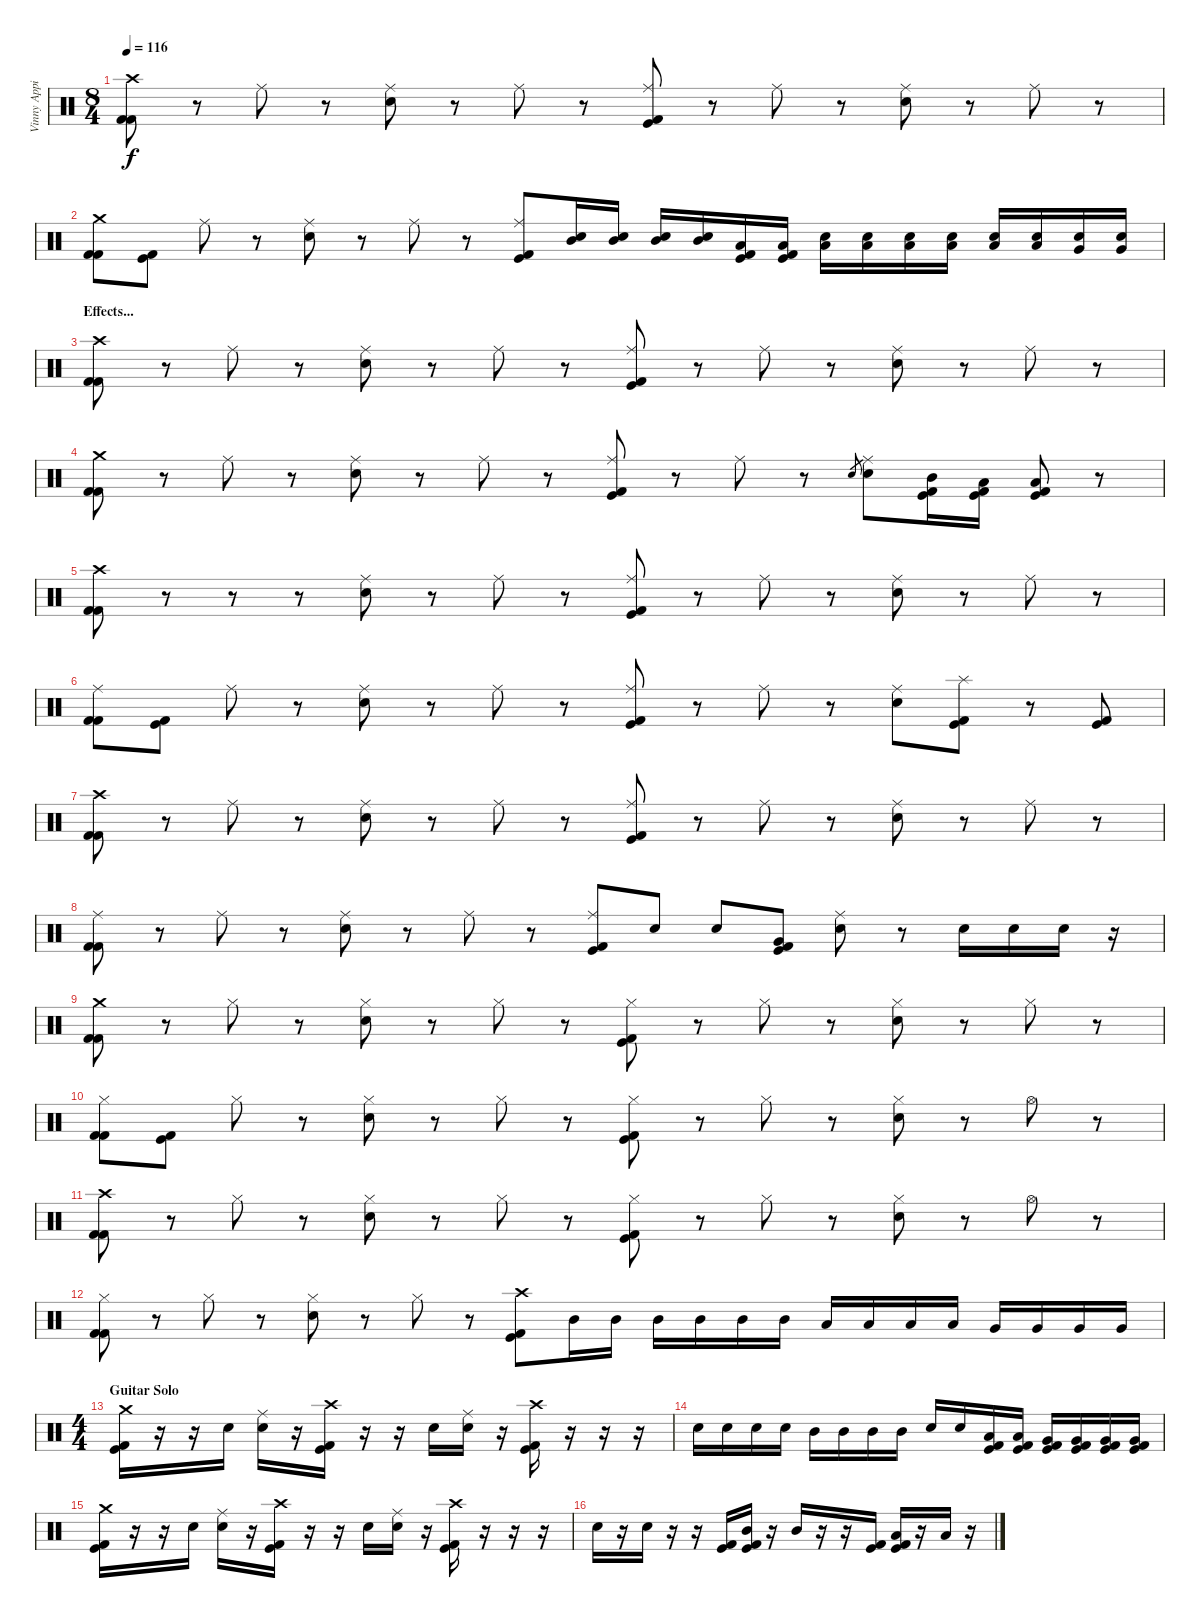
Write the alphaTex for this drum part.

\track ("Vinny Appice" "Vinny Appi") {instrument percussion}
\staff {score}
\articulation defaults
\ts (8 4)
\tempo 116
\clef neutral
\ks c
("Crash high (hit)" "Kick (hit) 2" "Kick (hit) 2").8{dy f} r.8 "Ride (middle)".8 r.8 ("Ride (middle)" "Snare (hit) 2").8 r.8 "Ride (middle)".8 r.8 ("Ride (middle)" "Kick (hit)" "Kick (hit) 2").8 r.8 "Ride (middle)".8 r.8 ("Ride (middle)" "Snare (hit) 2").8 r.8 "Ride (middle)".8 r.8 |
("Crash medium (hit)" "Kick (hit) 2" "Kick (hit) 2").8 ("Kick (hit)" "Kick (hit) 2").8 "Ride (middle)".8 r.8 ("Ride (middle)" "Snare (hit) 2").8 r.8 "Ride (middle)".8 r.8 ("Ride (middle)" "Kick (hit)" "Kick (hit) 2").8 ("Mid Tom (hit)" "Snare (hit) 2").16 ("Mid Tom (hit)" "Snare (hit) 2").16 ("Mid Tom (hit)" "Snare (hit) 2").16 ("Mid Tom (hit)" "Snare (hit) 2").16 ("Low Tom (hit)" "Kick (hit)" "Kick (hit) 2").16 ("Low Tom (hit)" "Kick (hit)" "Kick (hit) 2").16 ("Low Tom (hit)" "Snare (hit) 2").16 ("Low Tom (hit)" "Snare (hit) 2").16 ("Low Tom (hit)" "Snare (hit) 2").16 ("Low Tom (hit)" "Snare (hit) 2").16 ("Low Tom (hit)" "Snare (hit) 2").16 ("Low Tom (hit)" "Snare (hit) 2").16 ("Very Low Tom (hit)" "Snare (hit) 2").16 ("Very Low Tom (hit)" "Snare (hit) 2").16 |
\section ("" "Effects...")
("Crash high (hit)" "Kick (hit) 2" "Kick (hit) 2").8 r.8 "Ride (middle)".8 r.8 ("Ride (middle)" "Snare (hit) 2").8 r.8 "Ride (middle)".8 r.8 ("Ride (middle)" "Kick (hit)" "Kick (hit) 2").8 r.8 "Ride (middle)".8 r.8 ("Ride (middle)" "Snare (hit) 2").8 r.8 "Ride (middle)".8 r.8 |
("Crash medium (hit)" "Kick (hit) 2" "Kick (hit) 2").8 r.8 "Ride (middle)".8 r.8 ("Ride (middle)" "Snare (hit) 2").8 r.8 "Ride (middle)".8 r.8 ("Ride (middle)" "Kick (hit)" "Kick (hit) 2").8 r.8 "Ride (middle)".8 r.8 "Snare (hit) 2".8{gr} ("Ride (middle)" "Snare (hit) 2").8 ("Mid Tom (hit)" "Kick (hit)" "Kick (hit) 2").16 ("Low Tom (hit)" "Kick (hit)" "Kick (hit) 2").16 ("Low Tom (hit)" "Kick (hit)" "Kick (hit) 2").8 r.8 |
("Crash high (hit)" "Kick (hit) 2" "Kick (hit) 2").8 r.8 r.8 r.8 ("Ride (middle)" "Snare (hit) 2").8 r.8 "Ride (middle)".8 r.8 ("Ride (middle)" "Kick (hit)" "Kick (hit) 2").8 r.8 "Ride (middle)".8 r.8 ("Ride (middle)" "Snare (hit) 2").8 r.8 "Ride (middle)".8 r.8 |
("Ride (middle)" "Kick (hit) 2" "Kick (hit) 2").8 ("Kick (hit)" "Kick (hit) 2").8 "Ride (middle)".8 r.8 ("Ride (middle)" "Snare (hit) 2").8 r.8 "Ride (middle)".8 r.8 ("Ride (middle)" "Kick (hit)" "Kick (hit) 2").8 r.8 "Ride (middle)".8 r.8 ("Ride (middle)" "Snare (hit) 2").8 ("Splash (hit)" "Kick (hit)" "Kick (hit) 2").8 r.8 ("Kick (hit)" "Kick (hit) 2").8 |
("Crash high (hit)" "Kick (hit) 2" "Kick (hit) 2").8 r.8 "Ride (middle)".8 r.8 ("Ride (middle)" "Snare (hit) 2").8 r.8 "Ride (middle)".8 r.8 ("Ride (middle)" "Kick (hit)" "Kick (hit) 2").8 r.8 "Ride (middle)".8 r.8 ("Ride (middle)" "Snare (hit) 2").8 r.8 "Ride (middle)".8 r.8 |
("Ride (middle)" "Kick (hit) 2" "Kick (hit) 2").8 r.8 "Ride (middle)".8 r.8 ("Ride (middle)" "Snare (hit) 2").8 r.8 "Ride (middle)".8 r.8 ("Ride (middle)" "Kick (hit)" "Kick (hit) 2").8 "Snare (hit) 2".8 "Snare (hit) 2".8 ("Very Low Tom (hit)" "Kick (hit)" "Kick (hit) 2").8 ("Ride (middle)" "Snare (hit) 2").8 r.8 "Snare (hit) 2".16 "Snare (hit) 2".16 "Snare (hit) 2".16 r.16 |
("Crash medium (hit)" "Kick (hit) 2" "Kick (hit) 2").8 r.8 "Hi-Hat (closed)".8 r.8 ("Hi-Hat (closed)" "Snare (hit) 2").8 r.8 "Hi-Hat (closed)".8 r.8 ("Hi-Hat (closed)" "Kick (hit)" "Kick (hit) 2").8 r.8 "Hi-Hat (closed)".8 r.8 ("Hi-Hat (closed)" "Snare (hit) 2").8 r.8 "Hi-Hat (closed)".8 r.8 |
("Hi-Hat (closed)" "Kick (hit) 2" "Kick (hit) 2").8 ("Kick (hit)" "Kick (hit) 2").8 "Hi-Hat (closed)".8 r.8 ("Hi-Hat (closed)" "Snare (hit) 2").8 r.8 "Hi-Hat (closed)".8 r.8 ("Hi-Hat (closed)" "Kick (hit)" "Kick (hit) 2").8 r.8 "Hi-Hat (closed)".8 r.8 ("Hi-Hat (closed)" "Snare (hit) 2").8 r.8 "Hi-Hat (open)".8 r.8 |
("Crash high (hit)" "Kick (hit) 2" "Kick (hit) 2").8 r.8 "Hi-Hat (closed)".8 r.8 ("Hi-Hat (closed)" "Snare (hit) 2").8 r.8 "Hi-Hat (closed)".8 r.8 ("Hi-Hat (closed)" "Kick (hit)" "Kick (hit) 2").8 r.8 "Hi-Hat (closed)".8 r.8 ("Hi-Hat (closed)" "Snare (hit) 2").8 r.8 "Hi-Hat (open)".8 r.8 |
("Hi-Hat (closed)" "Kick (hit) 2" "Kick (hit) 2").8 r.8 "Hi-Hat (closed)".8 r.8 ("Hi-Hat (closed)" "Snare (hit) 2").8 r.8 "Hi-Hat (closed)".8 r.8 ("Crash high (hit)" "Kick (hit)" "Kick (hit) 2").8 "Mid Tom (hit)".16 "Mid Tom (hit)".16 "Mid Tom (hit)".16 "Mid Tom (hit)".16 "Mid Tom (hit)".16 "Mid Tom (hit)".16 "Low Tom (hit)".16 "Low Tom (hit)".16 "Low Tom (hit)".16 "Low Tom (hit)".16 "Very Low Tom (hit)".16 "Very Low Tom (hit)".16 "Very Low Tom (hit)".16 "Very Low Tom (hit)".16 |
\ts (4 4)
\section ("" "Guitar Solo")
("Crash medium (hit)" "Kick (hit)" "Kick (hit) 2").16 r.16 r.16 "Snare (hit) 2".16 ("Ride (middle)" "Snare (hit) 2").16 r.16 ("Crash high (hit)" "Kick (hit)" "Kick (hit) 2").16 r.16 r.16 "Snare (hit) 2".16 ("Ride (middle)" "Snare (hit) 2").16 r.16 ("Crash high (hit)" "Kick (hit)" "Kick (hit) 2").16 r.16 r.16 r.16 |
"Snare (hit) 2".16 "Snare (hit) 2".16 "Snare (hit) 2".16 "Snare (hit) 2".16 "Mid Tom (hit)".16 "Mid Tom (hit)".16 "Mid Tom (hit)".16 "Mid Tom (hit)".16 "Snare (hit) 2".16 "Snare (hit) 2".16 ("Low Tom (hit)" "Kick (hit)" "Kick (hit) 2").16 ("Low Tom (hit)" "Kick (hit)" "Kick (hit) 2").16 ("Very Low Tom (hit)" "Kick (hit)" "Kick (hit) 2").16 ("Very Low Tom (hit)" "Kick (hit)" "Kick (hit) 2").16 ("Very Low Tom (hit)" "Kick (hit)" "Kick (hit) 2").16 ("Very Low Tom (hit)" "Kick (hit)" "Kick (hit) 2").16 |
("Crash medium (hit)" "Kick (hit)" "Kick (hit) 2").16 r.16 r.16 "Snare (hit) 2".16 ("Ride (middle)" "Snare (hit) 2").16 r.16 ("Crash high (hit)" "Kick (hit)" "Kick (hit) 2").16 r.16 r.16 "Snare (hit) 2".16 ("Ride (middle)" "Snare (hit) 2").16 r.16 ("Crash high (hit)" "Kick (hit)" "Kick (hit) 2").16 r.16 r.16 r.16 |
"Snare (hit) 2".16 r.16 "Snare (hit) 2".16 r.16 r.16 ("Kick (hit)" "Kick (hit) 2").16 ("Mid Tom (hit)" "Kick (hit)" "Kick (hit) 2").16 r.16 "Mid Tom (hit)".16 r.16 r.16 ("Kick (hit)" "Kick (hit) 2").16 ("Low Tom (hit)" "Kick (hit)" "Kick (hit) 2").16 r.16 "Low Tom (hit)".16 r.16
